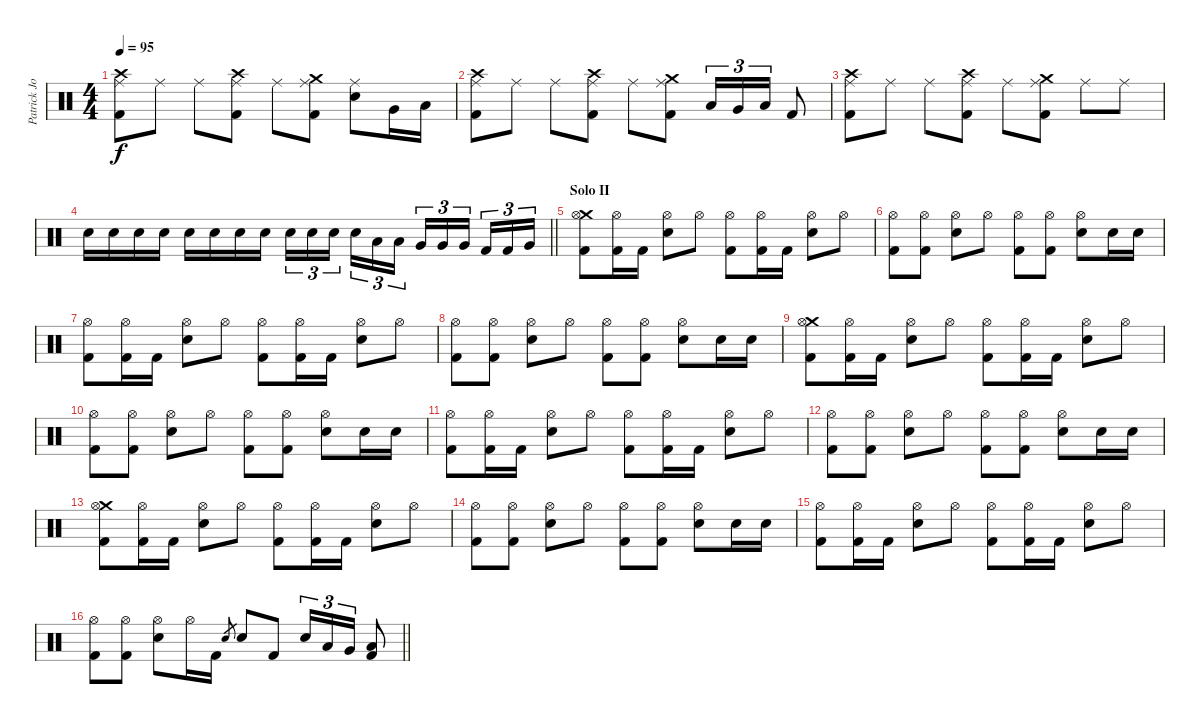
\track ("Patrick Johansson" "Patrick Jo") {instrument percussion}
\staff {score}
\articulation defaults
\ts (4 4)
\tempo 95
\clef neutral
\ks c
("Crash high (hit)" "Ride (middle)" "Kick (hit) 2").8{dy f} "Ride (middle)".8 "Ride (middle)".8 ("Crash high (hit)" "Ride (middle)" "Kick (hit) 2").8 "Ride (middle)".8 ("Crash medium (hit)" "Ride (middle)" "Kick (hit) 2").8 ("Ride (middle)" "Snare (hit) 2").8 "Very Low Tom (hit)".16 "Low Floor Tom (hit)".16 |
("Crash high (hit)" "Ride (middle)" "Kick (hit) 2").8 "Ride (middle)".8 "Ride (middle)".8 ("Crash high (hit)" "Ride (middle)" "Kick (hit) 2").8 "Ride (middle)".8 ("Crash medium (hit)" "Ride (middle)" "Kick (hit) 2").8 "Low Tom (hit)".16{tu (3 2)} "Very Low Tom (hit)".16{tu (3 2)} "Low Floor Tom (hit)".16{tu (3 2)} "Kick (hit) 2".8 |
("Crash high (hit)" "Ride (middle)" "Kick (hit) 2").8 "Ride (middle)".8 "Ride (middle)".8 ("Crash high (hit)" "Ride (middle)" "Kick (hit) 2").8 "Ride (middle)".8 ("Crash medium (hit)" "Ride (middle)" "Kick (hit) 2").8 "Ride (middle)".8 "Ride (middle)".8 |
\barLineRight lightlight "Snare (hit) 2".16 "Snare (hit) 2".16 "Snare (hit) 2".16 "Snare (hit) 2".16 "Snare (hit) 2".16 "Snare (hit) 2".16 "Snare (hit) 2".16 "Snare (hit) 2".16 "Snare (hit) 2".16{tu (3 2)} "Snare (hit) 2".16{tu (3 2)} "Snare (hit) 2".16{tu (3 2) beam splitsecondary} "Snare (hit) 2".16{tu (3 2)} "Low Tom (hit)".16{tu (3 2)} "Low Tom (hit)".16{tu (3 2)} "Very Low Tom (hit)".16{tu (3 2)} "Very Low Tom (hit)".16{tu (3 2)} "Very Low Tom (hit)".16{tu (3 2) beam splitsecondary} "Kick (hit) 2".16{tu (3 2)} "Kick (hit) 2".16{tu (3 2)} "Very Low Tom (hit)".16{tu (3 2)}
|
\section ("" "Solo II")
("Crash medium (hit)" "Hi-Hat (open)" "Kick (hit) 2").8 ("Hi-Hat (open)" "Kick (hit) 2").16 "Kick (hit) 2".16 ("Hi-Hat (open)" "Snare (hit) 2").8 "Hi-Hat (open)".8 ("Hi-Hat (open)" "Kick (hit) 2").8 ("Hi-Hat (open)" "Kick (hit) 2").16 "Kick (hit) 2".16 ("Hi-Hat (open)" "Snare (hit) 2").8 "Hi-Hat (open)".8 |
("Hi-Hat (open)" "Kick (hit) 2").8 ("Hi-Hat (open)" "Kick (hit) 2").8 ("Hi-Hat (open)" "Snare (hit) 2").8 "Hi-Hat (open)".8 ("Hi-Hat (open)" "Kick (hit) 2").8 ("Hi-Hat (open)" "Kick (hit) 2").8 ("Hi-Hat (open)" "Snare (hit) 2").8 "Snare (hit) 2".16 "Snare (hit) 2".16 |
("Hi-Hat (open)" "Kick (hit) 2").8 ("Hi-Hat (open)" "Kick (hit) 2").16 "Kick (hit) 2".16 ("Hi-Hat (open)" "Snare (hit) 2").8 "Hi-Hat (open)".8 ("Hi-Hat (open)" "Kick (hit) 2").8 ("Hi-Hat (open)" "Kick (hit) 2").16 "Kick (hit) 2".16 ("Hi-Hat (open)" "Snare (hit) 2").8 "Hi-Hat (open)".8 |
("Hi-Hat (open)" "Kick (hit) 2").8 ("Hi-Hat (open)" "Kick (hit) 2").8 ("Hi-Hat (open)" "Snare (hit) 2").8 "Hi-Hat (open)".8 ("Hi-Hat (open)" "Kick (hit) 2").8 ("Hi-Hat (open)" "Kick (hit) 2").8 ("Hi-Hat (open)" "Snare (hit) 2").8 "Snare (hit) 2".16 "Snare (hit) 2".16 |
("Crash medium (hit)" "Hi-Hat (open)" "Kick (hit) 2").8 ("Hi-Hat (open)" "Kick (hit) 2").16 "Kick (hit) 2".16 ("Hi-Hat (open)" "Snare (hit) 2").8 "Hi-Hat (open)".8 ("Hi-Hat (open)" "Kick (hit) 2").8 ("Hi-Hat (open)" "Kick (hit) 2").16 "Kick (hit) 2".16 ("Hi-Hat (open)" "Snare (hit) 2").8 "Hi-Hat (open)".8 |
("Hi-Hat (open)" "Kick (hit) 2").8 ("Hi-Hat (open)" "Kick (hit) 2").8 ("Hi-Hat (open)" "Snare (hit) 2").8 "Hi-Hat (open)".8 ("Hi-Hat (open)" "Kick (hit) 2").8 ("Hi-Hat (open)" "Kick (hit) 2").8 ("Hi-Hat (open)" "Snare (hit) 2").8 "Snare (hit) 2".16 "Snare (hit) 2".16 |
("Hi-Hat (open)" "Kick (hit) 2").8 ("Hi-Hat (open)" "Kick (hit) 2").16 "Kick (hit) 2".16 ("Hi-Hat (open)" "Snare (hit) 2").8 "Hi-Hat (open)".8 ("Hi-Hat (open)" "Kick (hit) 2").8 ("Hi-Hat (open)" "Kick (hit) 2").16 "Kick (hit) 2".16 ("Hi-Hat (open)" "Snare (hit) 2").8 "Hi-Hat (open)".8 |
("Hi-Hat (open)" "Kick (hit) 2").8 ("Hi-Hat (open)" "Kick (hit) 2").8 ("Hi-Hat (open)" "Snare (hit) 2").8 "Hi-Hat (open)".8 ("Hi-Hat (open)" "Kick (hit) 2").8 ("Hi-Hat (open)" "Kick (hit) 2").8 ("Hi-Hat (open)" "Snare (hit) 2").8 "Snare (hit) 2".16 "Snare (hit) 2".16 |
("Crash medium (hit)" "Hi-Hat (open)" "Kick (hit) 2").8 ("Hi-Hat (open)" "Kick (hit) 2").16 "Kick (hit) 2".16 ("Hi-Hat (open)" "Snare (hit) 2").8 "Hi-Hat (open)".8 ("Hi-Hat (open)" "Kick (hit) 2").8 ("Hi-Hat (open)" "Kick (hit) 2").16 "Kick (hit) 2".16 ("Hi-Hat (open)" "Snare (hit) 2").8 "Hi-Hat (open)".8 |
("Hi-Hat (open)" "Kick (hit) 2").8 ("Hi-Hat (open)" "Kick (hit) 2").8 ("Hi-Hat (open)" "Snare (hit) 2").8 "Hi-Hat (open)".8 ("Hi-Hat (open)" "Kick (hit) 2").8 ("Hi-Hat (open)" "Kick (hit) 2").8 ("Hi-Hat (open)" "Snare (hit) 2").8 "Snare (hit) 2".16 "Snare (hit) 2".16 |
("Hi-Hat (open)" "Kick (hit) 2").8 ("Hi-Hat (open)" "Kick (hit) 2").16 "Kick (hit) 2".16 ("Hi-Hat (open)" "Snare (hit) 2").8 "Hi-Hat (open)".8 ("Hi-Hat (open)" "Kick (hit) 2").8 ("Hi-Hat (open)" "Kick (hit) 2").16 "Kick (hit) 2".16 ("Hi-Hat (open)" "Snare (hit) 2").8 "Hi-Hat (open)".8 |
\barLineRight lightlight
("Hi-Hat (open)" "Kick (hit) 2").8 ("Hi-Hat (open)" "Kick (hit) 2").8 ("Hi-Hat (open)" "Snare (hit) 2").8 "Hi-Hat (open)".16 "Kick (hit) 2".16 "Snare (hit) 2".8{gr} "Snare (hit) 2".8 "Kick (hit) 2".8 "Snare (hit) 2".16{tu (3 2)} "Low Tom (hit)".16{tu (3 2)} "Very Low Tom (hit)".16{tu (3 2)} ("Low Floor Tom (hit)" "Kick (hit) 2").8
